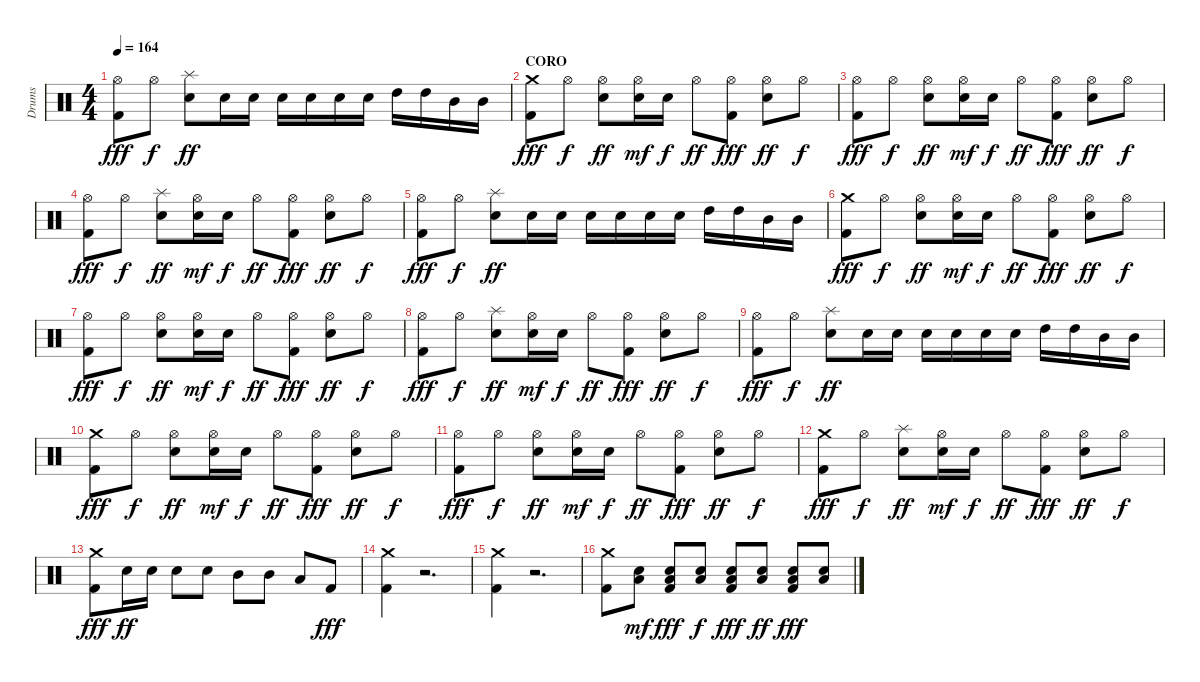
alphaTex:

\track ("Drums" "Drums") {instrument percussion}
\staff {score}
\articulation defaults
\ts (4 4)
\tempo 164
\clef neutral
\ks c
("Hi-Hat (open)" "Kick (hit) 2").8{dy fff} "Hi-Hat (open)".8{dy f} ("Splash (hit)" "Snare (hit) 2").8{dy ff} "Snare (hit) 2".16 "Snare (hit) 2".16 "Snare (hit) 2".16 "Snare (hit) 2".16 "Snare (hit) 2".16 "Snare (hit) 2".16 "High Tom (hit)".16 "High Tom (hit)".16 "Mid Tom (hit)".16 "Mid Tom (hit)".16 |
\section ("" "CORO")
("Crash medium (hit)" "Kick (hit) 2").8{dy fff} "Hi-Hat (open)".8{dy f} ("Hi-Hat (open)" "Snare (hit) 2").8{dy ff} ("Hi-Hat (open)" "Snare (hit) 2").16{dy mf} "Snare (hit) 2".16{dy f} "Hi-Hat (open)".8{dy ff} ("Hi-Hat (open)" "Kick (hit) 2").8{dy fff} ("Hi-Hat (open)" "Snare (hit) 2").8{dy ff} "Hi-Hat (open)".8{dy f} |
("Hi-Hat (open)" "Kick (hit) 2").8{dy fff} "Hi-Hat (open)".8{dy f} ("Hi-Hat (open)" "Snare (hit) 2").8{dy ff} ("Hi-Hat (open)" "Snare (hit) 2").16{dy mf} "Snare (hit) 2".16{dy f} "Hi-Hat (open)".8{dy ff} ("Hi-Hat (open)" "Kick (hit) 2").8{dy fff} ("Hi-Hat (open)" "Snare (hit) 2").8{dy ff} "Hi-Hat (open)".8{dy f} |
("Hi-Hat (open)" "Kick (hit) 2").8{dy fff} "Hi-Hat (open)".8{dy f} ("Splash (hit)" "Snare (hit) 2").8{dy ff} ("Hi-Hat (open)" "Snare (hit) 2").16{dy mf} "Snare (hit) 2".16{dy f} "Hi-Hat (open)".8{dy ff} ("Hi-Hat (open)" "Kick (hit) 2").8{dy fff} ("Hi-Hat (open)" "Snare (hit) 2").8{dy ff} "Hi-Hat (open)".8{dy f} |
("Hi-Hat (open)" "Kick (hit) 2").8{dy fff} "Hi-Hat (open)".8{dy f} ("Splash (hit)" "Snare (hit) 2").8{dy ff} "Snare (hit) 2".16 "Snare (hit) 2".16 "Snare (hit) 2".16 "Snare (hit) 2".16 "Snare (hit) 2".16 "Snare (hit) 2".16 "High Tom (hit)".16 "High Tom (hit)".16 "Mid Tom (hit)".16 "Mid Tom (hit)".16 |
("Crash medium (hit)" "Kick (hit) 2").8{dy fff} "Hi-Hat (open)".8{dy f} ("Hi-Hat (open)" "Snare (hit) 2").8{dy ff} ("Hi-Hat (open)" "Snare (hit) 2").16{dy mf} "Snare (hit) 2".16{dy f} "Hi-Hat (open)".8{dy ff} ("Hi-Hat (open)" "Kick (hit) 2").8{dy fff} ("Hi-Hat (open)" "Snare (hit) 2").8{dy ff} "Hi-Hat (open)".8{dy f} |
("Hi-Hat (open)" "Kick (hit) 2").8{dy fff} "Hi-Hat (open)".8{dy f} ("Hi-Hat (open)" "Snare (hit) 2").8{dy ff} ("Hi-Hat (open)" "Snare (hit) 2").16{dy mf} "Snare (hit) 2".16{dy f} "Hi-Hat (open)".8{dy ff} ("Hi-Hat (open)" "Kick (hit) 2").8{dy fff} ("Hi-Hat (open)" "Snare (hit) 2").8{dy ff} "Hi-Hat (open)".8{dy f} |
("Hi-Hat (open)" "Kick (hit) 2").8{dy fff} "Hi-Hat (open)".8{dy f} ("Splash (hit)" "Snare (hit) 2").8{dy ff} ("Hi-Hat (open)" "Snare (hit) 2").16{dy mf} "Snare (hit) 2".16{dy f} "Hi-Hat (open)".8{dy ff} ("Hi-Hat (open)" "Kick (hit) 2").8{dy fff} ("Hi-Hat (open)" "Snare (hit) 2").8{dy ff} "Hi-Hat (open)".8{dy f} |
("Hi-Hat (open)" "Kick (hit) 2").8{dy fff} "Hi-Hat (open)".8{dy f} ("Splash (hit)" "Snare (hit) 2").8{dy ff} "Snare (hit) 2".16 "Snare (hit) 2".16 "Snare (hit) 2".16 "Snare (hit) 2".16 "Snare (hit) 2".16 "Snare (hit) 2".16 "High Tom (hit)".16 "High Tom (hit)".16 "Mid Tom (hit)".16 "Mid Tom (hit)".16 |
("Crash medium (hit)" "Kick (hit) 2").8{dy fff} "Hi-Hat (open)".8{dy f} ("Hi-Hat (open)" "Snare (hit) 2").8{dy ff} ("Hi-Hat (open)" "Snare (hit) 2").16{dy mf} "Snare (hit) 2".16{dy f} "Hi-Hat (open)".8{dy ff} ("Hi-Hat (open)" "Kick (hit) 2").8{dy fff} ("Hi-Hat (open)" "Snare (hit) 2").8{dy ff} "Hi-Hat (open)".8{dy f} |
("Hi-Hat (open)" "Kick (hit) 2").8{dy fff} "Hi-Hat (open)".8{dy f} ("Hi-Hat (open)" "Snare (hit) 2").8{dy ff} ("Hi-Hat (open)" "Snare (hit) 2").16{dy mf} "Snare (hit) 2".16{dy f} "Hi-Hat (open)".8{dy ff} ("Hi-Hat (open)" "Kick (hit) 2").8{dy fff} ("Hi-Hat (open)" "Snare (hit) 2").8{dy ff} "Hi-Hat (open)".8{dy f} |
("Crash medium (hit)" "Kick (hit) 2").8{dy fff} "Hi-Hat (open)".8{dy f} ("Splash (hit)" "Snare (hit) 2").8{dy ff} ("Hi-Hat (open)" "Snare (hit) 2").16{dy mf} "Snare (hit) 2".16{dy f} "Hi-Hat (open)".8{dy ff} ("Hi-Hat (open)" "Kick (hit) 2").8{dy fff} ("Hi-Hat (open)" "Snare (hit) 2").8{dy ff} "Hi-Hat (open)".8{dy f} |
("Crash medium (hit)" "Kick (hit) 2").8{dy fff} "Snare (hit) 2".16{dy ff} "Snare (hit) 2".16 "Snare (hit) 2".8 "Snare (hit) 2".8 "Mid Tom (hit)".8 "Mid Tom (hit)".8 "Low Tom (hit)".8 "Kick (hit) 2".8{dy fff} |
("Crash medium (hit)" "Kick (hit) 2").4 r.2{d} |
("Crash medium (hit)" "Kick (hit) 2").4 r.2{d} |
("Crash medium (hit)" "Kick (hit) 2").8 ("Snare (hit) 2" "Low Tom (hit)").8{dy mf} ("Snare (hit) 2" "Low Tom (hit)" "Kick (hit) 2").8{dy fff} ("Snare (hit) 2" "Low Tom (hit)").8{dy f} ("Snare (hit) 2" "Low Tom (hit)" "Kick (hit) 2").8{dy fff} ("Snare (hit) 2" "Low Tom (hit)").8{dy ff} ("Snare (hit) 2" "Low Tom (hit)" "Kick (hit) 2").8{dy fff} ("Snare (hit) 2" "Low Tom (hit)").8
